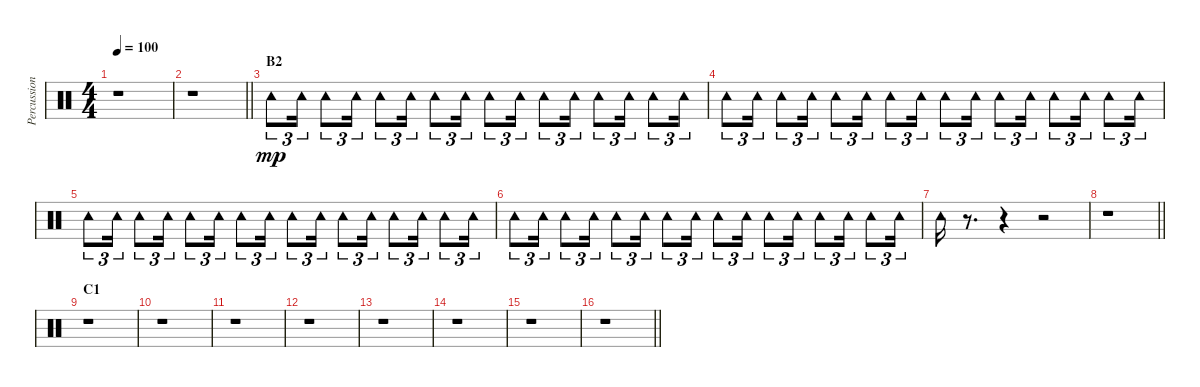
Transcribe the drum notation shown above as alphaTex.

\track ("Percussion" "Percussion") {instrument percussion}
\staff {score}
\articulation defaults
\ts (4 4)
\tempo 100
\clef neutral
\ks c
r.1{dy mp} |
\barLineRight lightlight
r.1 |
\section ("" "B2")
"Tambourine (hit)".8{tu (3 2)} "Tambourine (hit)".16{tu (3 2)} "Tambourine (hit)".8{tu (3 2)} "Tambourine (hit)".16{tu (3 2)} "Tambourine (hit)".8{tu (3 2)} "Tambourine (hit)".16{tu (3 2)} "Tambourine (hit)".8{tu (3 2)} "Tambourine (hit)".16{tu (3 2)} "Tambourine (hit)".8{tu (3 2)} "Tambourine (hit)".16{tu (3 2)} "Tambourine (hit)".8{tu (3 2)} "Tambourine (hit)".16{tu (3 2)} "Tambourine (hit)".8{tu (3 2)} "Tambourine (hit)".16{tu (3 2)} "Tambourine (hit)".8{tu (3 2)} "Tambourine (hit)".16{tu (3 2)} |
"Tambourine (hit)".8{tu (3 2)} "Tambourine (hit)".16{tu (3 2)} "Tambourine (hit)".8{tu (3 2)} "Tambourine (hit)".16{tu (3 2)} "Tambourine (hit)".8{tu (3 2)} "Tambourine (hit)".16{tu (3 2)} "Tambourine (hit)".8{tu (3 2)} "Tambourine (hit)".16{tu (3 2)} "Tambourine (hit)".8{tu (3 2)} "Tambourine (hit)".16{tu (3 2)} "Tambourine (hit)".8{tu (3 2)} "Tambourine (hit)".16{tu (3 2)} "Tambourine (hit)".8{tu (3 2)} "Tambourine (hit)".16{tu (3 2)} "Tambourine (hit)".8{tu (3 2)} "Tambourine (hit)".16{tu (3 2)} |
"Tambourine (hit)".8{tu (3 2)} "Tambourine (hit)".16{tu (3 2)} "Tambourine (hit)".8{tu (3 2)} "Tambourine (hit)".16{tu (3 2)} "Tambourine (hit)".8{tu (3 2)} "Tambourine (hit)".16{tu (3 2)} "Tambourine (hit)".8{tu (3 2)} "Tambourine (hit)".16{tu (3 2)} "Tambourine (hit)".8{tu (3 2)} "Tambourine (hit)".16{tu (3 2)} "Tambourine (hit)".8{tu (3 2)} "Tambourine (hit)".16{tu (3 2)} "Tambourine (hit)".8{tu (3 2)} "Tambourine (hit)".16{tu (3 2)} "Tambourine (hit)".8{tu (3 2)} "Tambourine (hit)".16{tu (3 2)} |
"Tambourine (hit)".8{tu (3 2)} "Tambourine (hit)".16{tu (3 2)} "Tambourine (hit)".8{tu (3 2)} "Tambourine (hit)".16{tu (3 2)} "Tambourine (hit)".8{tu (3 2)} "Tambourine (hit)".16{tu (3 2)} "Tambourine (hit)".8{tu (3 2)} "Tambourine (hit)".16{tu (3 2)} "Tambourine (hit)".8{tu (3 2)} "Tambourine (hit)".16{tu (3 2)} "Tambourine (hit)".8{tu (3 2)} "Tambourine (hit)".16{tu (3 2)} "Tambourine (hit)".8{tu (3 2)} "Tambourine (hit)".16{tu (3 2)} "Tambourine (hit)".8{tu (3 2)} "Tambourine (hit)".16{tu (3 2)} |
"Tambourine (hit)".16 r.8{d} r.4 r.2 |
\barLineRight lightlight
r.1 |
\section ("" "C1")
r.1 |
r.1 |
r.1 |
r.1 |
r.1 |
r.1 |
r.1 |
\barLineRight lightlight
r.1
